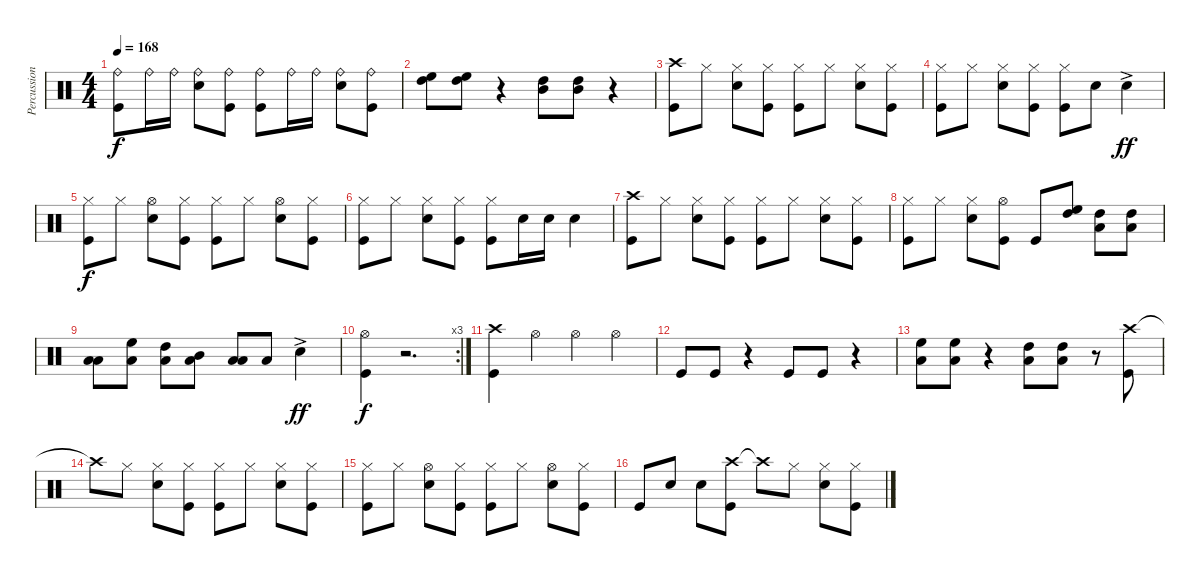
\track ("Percussions" "Percussion") {instrument percussion}
\staff {score}
\articulation defaults
\ts (4 4)
\tempo 168
\clef neutral
\ks c
("Ride (bell)" "Kick (hit)").8{dy f} "Ride (bell)".16 "Ride (bell)".16 ("Ride (bell)" "Snare (hit) 2").8 ("Ride (bell)" "Kick (hit)").8 ("Ride (bell)" "Kick (hit)").8 "Ride (bell)".16 "Ride (bell)".16 ("Ride (bell)" "Snare (hit) 2").8 ("Ride (bell)" "Kick (hit)").8 |
("High Floor Tom (hit)" "High Tom (hit)").8 ("High Floor Tom (hit)" "High Tom (hit)").8 r.4 ("High Tom (hit)" "Mid Tom (hit)").8 ("High Tom (hit)" "Mid Tom (hit)").8 r.4 |
("Crash high (hit)" "Kick (hit)").8 "Hi-Hat (closed)".8 ("Hi-Hat (closed)" "Snare (hit) 2").8 ("Hi-Hat (closed)" "Kick (hit)").8 ("Hi-Hat (closed)" "Kick (hit)").8 "Hi-Hat (closed)".8 ("Hi-Hat (closed)" "Snare (hit) 2").8 ("Hi-Hat (closed)" "Kick (hit)").8 |
("Hi-Hat (closed)" "Kick (hit)").8 "Hi-Hat (closed)".8 ("Hi-Hat (closed)" "Snare (hit) 2").8 ("Hi-Hat (closed)" "Kick (hit)").8 ("Hi-Hat (closed)" "Kick (hit)").8 "Snare (hit) 2".8 "Snare (hit) 2"{ac}.4{dy ff} |
("Hi-Hat (closed)" "Kick (hit)").8{dy f} "Hi-Hat (closed)".8 ("Hi-Hat (open)" "Snare (hit) 2").8 ("Hi-Hat (closed)" "Kick (hit)").8 ("Hi-Hat (closed)" "Kick (hit)").8 "Hi-Hat (closed)".8 ("Hi-Hat (open)" "Snare (hit) 2").8 ("Hi-Hat (closed)" "Kick (hit)").8 |
("Hi-Hat (closed)" "Kick (hit)").8 "Hi-Hat (closed)".8 ("Hi-Hat (closed)" "Snare (hit) 2").8 ("Hi-Hat (closed)" "Kick (hit)").8 ("Hi-Hat (closed)" "Kick (hit)").8 "Snare (hit) 2".16 "Snare (hit) 2".16 "Snare (hit) 2".4 |
("Crash high (hit)" "Kick (hit)").8 "Hi-Hat (closed)".8 ("Hi-Hat (closed)" "Snare (hit) 2").8 ("Hi-Hat (closed)" "Kick (hit)").8 ("Hi-Hat (closed)" "Kick (hit)").8 "Hi-Hat (closed)".8 ("Hi-Hat (closed)" "Snare (hit) 2").8 ("Hi-Hat (closed)" "Kick (hit)").8 |
("Hi-Hat (closed)" "Kick (hit)").8 "Hi-Hat (closed)".8 ("Hi-Hat (closed)" "Snare (hit) 2").8 ("Hi-Hat (open)" "Kick (hit)").8 "Kick (hit)".8 ("High Floor Tom (hit)" "High Tom (hit)").8 ("High Tom (hit)" "Low Tom (hit)").8 ("High Tom (hit)" "Low Tom (hit)").8 |
("Low Floor Tom (hit)" "Low Tom (hit)").8 ("Low Tom (hit)" "High Floor Tom (hit)").8 ("Low Tom (hit)" "High Tom (hit)").8 ("Mid Tom (hit)" "Low Tom (hit)").8 ("Low Floor Tom (hit)" "Low Tom (hit)").8 "Low Floor Tom (hit)".8 "Snare (hit) 2"{ac}.4{dy ff} |
\rc 3
("Hi-Hat (open)" "Kick (hit)").4{dy f} r.2{d} |
("Crash high (hit)" "Kick (hit)").4 "Hi-Hat (open)".4 "Hi-Hat (open)".4 "Hi-Hat (open)".4 |
"Kick (hit)".8 "Kick (hit)".8 r.4 "Kick (hit)".8 "Kick (hit)".8 r.4 |
("Low Tom (hit)" "High Floor Tom (hit)").8 ("Low Tom (hit)" "High Floor Tom (hit)").8 r.4 ("High Tom (hit)" "Low Tom (hit)").8 ("High Tom (hit)" "Low Tom (hit)").8 r.8 ("Crash high (hit)" "Kick (hit)").8 |
"Crash high (hit)"{t}.8 "Hi-Hat (closed)".8 ("Hi-Hat (closed)" "Snare (hit) 2").8 ("Hi-Hat (closed)" "Kick (hit)").8 ("Hi-Hat (closed)" "Kick (hit)").8 "Hi-Hat (closed)".8 ("Hi-Hat (closed)" "Snare (hit) 2").8 ("Hi-Hat (closed)" "Kick (hit)").8 |
("Hi-Hat (closed)" "Kick (hit)").8 "Hi-Hat (closed)".8 ("Hi-Hat (open)" "Snare (hit) 2").8 ("Hi-Hat (closed)" "Kick (hit)").8 ("Hi-Hat (closed)" "Kick (hit)").8 "Hi-Hat (closed)".8 ("Hi-Hat (open)" "Snare (hit) 2").8 ("Hi-Hat (closed)" "Kick (hit)").8 |
"Kick (hit)".8 "Snare (hit) 2".8 "Snare (hit) 2".8 ("Crash high (hit)" "Kick (hit)").8 "Crash high (hit)"{t}.8 "Hi-Hat (closed)".8 ("Hi-Hat (closed)" "Snare (hit) 2").8 ("Hi-Hat (closed)" "Kick (hit)").8
